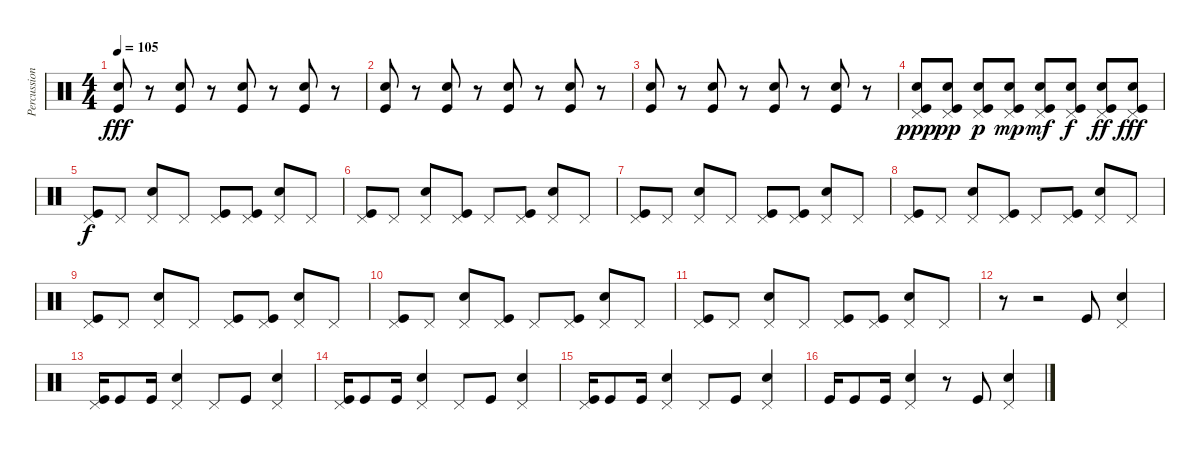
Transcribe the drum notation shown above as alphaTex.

\track ("Percussion" "Percussion") {instrument percussion bank 255}
\staff {score}
\articulation defaults
\ts (4 4)
\tempo 105
\clef neutral
\ks c
("Snare (hit) 2" "Kick (hit)").8{dy fff} r.8 ("Snare (hit) 2" "Kick (hit)").8 r.8 ("Snare (hit) 2" "Kick (hit)").8 r.8 ("Snare (hit) 2" "Kick (hit)").8 r.8 |
("Snare (hit) 2" "Kick (hit)").8 r.8 ("Snare (hit) 2" "Kick (hit)").8 r.8 ("Snare (hit) 2" "Kick (hit)").8 r.8 ("Snare (hit) 2" "Kick (hit)").8 r.8 |
("Snare (hit) 2" "Kick (hit)").8 r.8 ("Snare (hit) 2" "Kick (hit)").8 r.8 ("Snare (hit) 2" "Kick (hit)").8 r.8 ("Snare (hit) 2" "Kick (hit)").8 r.8 |
("Pedal Hi-Hat (hit)" "Snare (hit) 2" "Kick (hit)").8{dy ppp} ("Pedal Hi-Hat (hit)" "Snare (hit) 2" "Kick (hit)").8{dy pp} ("Pedal Hi-Hat (hit)" "Snare (hit) 2" "Kick (hit)").8{dy p} ("Pedal Hi-Hat (hit)" "Snare (hit) 2" "Kick (hit)").8{dy mp} ("Pedal Hi-Hat (hit)" "Snare (hit) 2" "Kick (hit)").8{dy mf} ("Pedal Hi-Hat (hit)" "Snare (hit) 2" "Kick (hit)").8{dy f} ("Pedal Hi-Hat (hit)" "Snare (hit) 2" "Kick (hit)").8{dy ff} ("Pedal Hi-Hat (hit)" "Snare (hit) 2" "Kick (hit)").8{dy fff} |
("Pedal Hi-Hat (hit)" "Kick (hit)").8{dy f} "Pedal Hi-Hat (hit)".8 ("Pedal Hi-Hat (hit)" "Snare (hit) 2").8 "Pedal Hi-Hat (hit)".8 ("Pedal Hi-Hat (hit)" "Kick (hit)").8 ("Pedal Hi-Hat (hit)" "Kick (hit)").8 ("Pedal Hi-Hat (hit)" "Snare (hit) 2").8 "Pedal Hi-Hat (hit)".8 |
("Pedal Hi-Hat (hit)" "Kick (hit)").8 "Pedal Hi-Hat (hit)".8 ("Pedal Hi-Hat (hit)" "Snare (hit) 2").8 ("Pedal Hi-Hat (hit)" "Kick (hit)").8 "Pedal Hi-Hat (hit)".8 ("Pedal Hi-Hat (hit)" "Kick (hit)").8 ("Pedal Hi-Hat (hit)" "Snare (hit) 2").8 "Pedal Hi-Hat (hit)".8 |
("Pedal Hi-Hat (hit)" "Kick (hit)").8 "Pedal Hi-Hat (hit)".8 ("Pedal Hi-Hat (hit)" "Snare (hit) 2").8 "Pedal Hi-Hat (hit)".8 ("Pedal Hi-Hat (hit)" "Kick (hit)").8 ("Pedal Hi-Hat (hit)" "Kick (hit)").8 ("Pedal Hi-Hat (hit)" "Snare (hit) 2").8 "Pedal Hi-Hat (hit)".8 |
("Pedal Hi-Hat (hit)" "Kick (hit)").8 "Pedal Hi-Hat (hit)".8 ("Pedal Hi-Hat (hit)" "Snare (hit) 2").8 ("Pedal Hi-Hat (hit)" "Kick (hit)").8 "Pedal Hi-Hat (hit)".8 ("Pedal Hi-Hat (hit)" "Kick (hit)").8 ("Pedal Hi-Hat (hit)" "Snare (hit) 2").8 "Pedal Hi-Hat (hit)".8 |
("Pedal Hi-Hat (hit)" "Kick (hit)").8 "Pedal Hi-Hat (hit)".8 ("Pedal Hi-Hat (hit)" "Snare (hit) 2").8 "Pedal Hi-Hat (hit)".8 ("Pedal Hi-Hat (hit)" "Kick (hit)").8 ("Pedal Hi-Hat (hit)" "Kick (hit)").8 ("Pedal Hi-Hat (hit)" "Snare (hit) 2").8 "Pedal Hi-Hat (hit)".8 |
("Pedal Hi-Hat (hit)" "Kick (hit)").8 "Pedal Hi-Hat (hit)".8 ("Pedal Hi-Hat (hit)" "Snare (hit) 2").8 ("Pedal Hi-Hat (hit)" "Kick (hit)").8 "Pedal Hi-Hat (hit)".8 ("Pedal Hi-Hat (hit)" "Kick (hit)").8 ("Pedal Hi-Hat (hit)" "Snare (hit) 2").8 "Pedal Hi-Hat (hit)".8 |
("Pedal Hi-Hat (hit)" "Kick (hit)").8 "Pedal Hi-Hat (hit)".8 ("Pedal Hi-Hat (hit)" "Snare (hit) 2").8 "Pedal Hi-Hat (hit)".8 ("Pedal Hi-Hat (hit)" "Kick (hit)").8 ("Pedal Hi-Hat (hit)" "Kick (hit)").8 ("Pedal Hi-Hat (hit)" "Snare (hit) 2").8 "Pedal Hi-Hat (hit)".8 |
r.8 r.2 "Kick (hit)".8 ("Pedal Hi-Hat (hit)" "Snare (hit) 2").4 |
("Pedal Hi-Hat (hit)" "Kick (hit)").16 "Kick (hit)".8 "Kick (hit)".16 ("Pedal Hi-Hat (hit)" "Snare (hit) 2").4 "Pedal Hi-Hat (hit)".8 "Kick (hit)".8 ("Pedal Hi-Hat (hit)" "Snare (hit) 2").4 |
("Pedal Hi-Hat (hit)" "Kick (hit)").16 "Kick (hit)".8 "Kick (hit)".16 ("Pedal Hi-Hat (hit)" "Snare (hit) 2").4 "Pedal Hi-Hat (hit)".8 "Kick (hit)".8 ("Pedal Hi-Hat (hit)" "Snare (hit) 2").4 |
("Pedal Hi-Hat (hit)" "Kick (hit)").16 "Kick (hit)".8 "Kick (hit)".16 ("Pedal Hi-Hat (hit)" "Snare (hit) 2").4 "Pedal Hi-Hat (hit)".8 "Kick (hit)".8 ("Pedal Hi-Hat (hit)" "Snare (hit) 2").4 |
"Kick (hit)".16 "Kick (hit)".8 "Kick (hit)".16 ("Pedal Hi-Hat (hit)" "Snare (hit) 2").4 r.8 "Kick (hit)".8 ("Pedal Hi-Hat (hit)" "Snare (hit) 2").4
